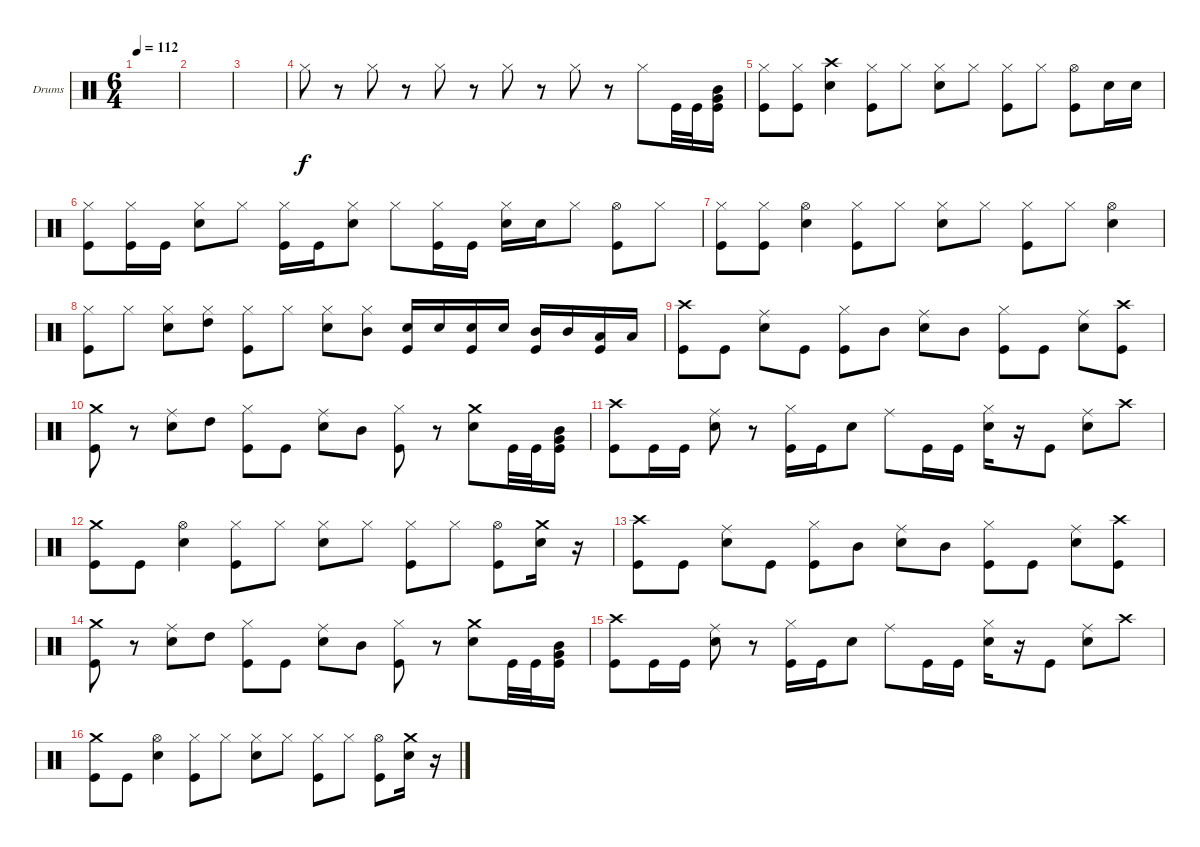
\defaultSystemsLayout 4
\bracketExtendMode groupsimilarinstruments
\firstSystemTrackNameOrientation horizontal
\otherSystemsTrackNameOrientation horizontal
\track ("Kaleb - Drums" "Drums") {instrument percussion}
\staff {score}
\articulation defaults
\ts (6 4)
\tempo 112
\clef neutral
\scale
0.333333
\ks c
|
\scale
0.333333 |
\scale
0.333333 |
\scale
0.333333 "Hi-Hat (closed)".8 r.8 "Hi-Hat (closed)".8 r.8 "Hi-Hat (closed)".8 r.8 "Hi-Hat (closed)".8 r.8 "Hi-Hat (closed)".8 r.8 "Hi-Hat (closed)".8 "Kick (hit)".32 "Kick (hit)".32 ("Mid Tom (hit)" "Very Low Tom (hit)" "Kick (hit)").16 |
\scale
0.333333 ("Hi-Hat (closed)" "Kick (hit)").8 ("Kick (hit)" "Hi-Hat (closed)").8 ("Snare (hit) 2" "Crash high (hit)").4{dy f} ("Hi-Hat (closed)" "Kick (hit)").8 "Hi-Hat (closed)".8 ("Hi-Hat (closed)" "Snare (hit) 2").8 "Hi-Hat (closed)".8 ("Hi-Hat (closed)" "Kick (hit)").8 "Hi-Hat (closed)".8 ("Kick (hit)" "Hi-Hat (open)").8 "Snare (hit) 2".16 "Snare (hit) 2".16 |
\scale
0.333333 ("Kick (hit)" "Hi-Hat (closed)").8 ("Kick (hit)" "Hi-Hat (closed)").16 "Kick (hit)".16 ("Snare (hit) 2" "Hi-Hat (closed)").8 "Hi-Hat (closed)".8 ("Hi-Hat (closed)" "Kick (hit)").16 "Kick (hit)".16 ("Hi-Hat (closed)" "Snare (hit) 2").8 "Hi-Hat (closed)".8 ("Hi-Hat (closed)" "Kick (hit)").16 "Kick (hit)".16 ("Hi-Hat (closed)" "Snare (hit) 2").16 "Snare (hit) 2".16 "Hi-Hat (closed)".8 ("Hi-Hat (open)" "Kick (hit)").8 "Hi-Hat (closed)".8 |
\scale
0.333333 ("Hi-Hat (closed)" "Kick (hit)").8 ("Hi-Hat (closed)" "Kick (hit)").8 ("Hi-Hat (open)" "Snare (hit) 2").4 ("Hi-Hat (closed)" "Kick (hit)").8 "Hi-Hat (closed)".8 ("Hi-Hat (closed)" "Snare (hit) 2").8 "Hi-Hat (closed)".8 ("Hi-Hat (closed)" "Kick (hit)").8 "Hi-Hat (closed)".8 ("Hi-Hat (open)" "Snare (hit) 2").4 |
\scale
0.333333 ("Kick (hit)" "Hi-Hat (closed)").8 "Hi-Hat (closed)".8 ("Hi-Hat (closed)" "Snare (hit) 2").8 ("Hi-Hat (closed)" "High Tom (hit)").8 ("Hi-Hat (closed)" "Kick (hit)").8 "Hi-Hat (closed)".8 ("Hi-Hat (closed)" "Snare (hit) 2").8 ("Hi-Hat (closed)" "Mid Tom (hit)").8 ("Snare (hit) 2" "Kick (hit)").16 "Snare (hit) 2".16 ("Snare (hit) 2" "Kick (hit)").16 "Snare (hit) 2".16 ("Mid Tom (hit)" "Kick (hit)").16 "Mid Tom (hit)".16 ("Kick (hit)" "Low Tom (hit)").16 "Low Tom (hit)".16 |
\scale
0.333333 ("Kick (hit)" "Crash high (hit)").8 "Kick (hit)".8 ("Snare (hit) 2" "Ride (middle)").8 "Kick (hit)".8 ("Hi-Hat (closed)" "Kick (hit)").8 "Mid Tom (hit)".8 ("Ride (middle)" "Snare (hit) 2").8 "Mid Tom (hit)".8 ("Hi-Hat (closed)" "Kick (hit)").8 "Kick (hit)".8 ("Ride (middle)" "Snare (hit) 2").8 ("Kick (hit)" "Crash high (hit)").8 |
\scale
0.333333 ("Kick (hit)" "Crash medium (hit)").8 r.8 ("Snare (hit) 2" "Ride (middle)").8 "High Tom (hit)".8 ("Hi-Hat (closed)" "Kick (hit)").8 "Kick (hit)".8 ("Snare (hit) 2" "Ride (middle)").8 "Mid Tom (hit)".8 ("Hi-Hat (closed)" "Kick (hit)").8 r.8 ("Crash medium (hit)" "Snare (hit) 2").8 "Kick (hit)".32 "Kick (hit)".32 ("Mid Tom (hit)" "Very Low Tom (hit)" "Kick (hit)").16 |
\scale
0.333333 ("Kick (hit)" "Crash high (hit)").8 "Kick (hit)".16 "Kick (hit)".16 ("Snare (hit) 2" "Ride (middle)").8 r.8 ("Hi-Hat (closed)" "Kick (hit)").16 "Kick (hit)".16 "Snare (hit) 2".8 "Ride (middle)".8 "Kick (hit)".16 "Kick (hit)".16 ("Hi-Hat (closed)" "Snare (hit) 2").16 r.16 "Kick (hit)".8 ("Ride (middle)" "Snare (hit) 2").8 "Crash high (hit)".8 |
\scale
0.333333 ("Kick (hit)" "Crash medium (hit)").8 "Kick (hit)".8 ("Hi-Hat (open)" "Snare (hit) 2").4 ("Hi-Hat (closed)" "Kick (hit)").8 "Hi-Hat (closed)".8 ("Hi-Hat (closed)" "Snare (hit) 2").8 "Hi-Hat (closed)".8 ("Hi-Hat (closed)" "Kick (hit)").8 "Hi-Hat (closed)".8 ("Kick (hit)" "Hi-Hat (open)").8 ("Snare (hit) 2" "Crash medium (hit)").16 r.16 |
\scale
0.333333 ("Kick (hit)" "Crash high (hit)").8 "Kick (hit)".8 ("Snare (hit) 2" "Ride (middle)").8 "Kick (hit)".8 ("Hi-Hat (closed)" "Kick (hit)").8 "Mid Tom (hit)".8 ("Ride (middle)" "Snare (hit) 2").8 "Mid Tom (hit)".8 ("Hi-Hat (closed)" "Kick (hit)").8 "Kick (hit)".8 ("Ride (middle)" "Snare (hit) 2").8 ("Kick (hit)" "Crash high (hit)").8 |
\scale
0.333333 ("Kick (hit)" "Crash medium (hit)").8 r.8 ("Snare (hit) 2" "Ride (middle)").8 "High Tom (hit)".8 ("Hi-Hat (closed)" "Kick (hit)").8 "Kick (hit)".8 ("Snare (hit) 2" "Ride (middle)").8 "Mid Tom (hit)".8 ("Hi-Hat (closed)" "Kick (hit)").8 r.8 ("Crash medium (hit)" "Snare (hit) 2").8 "Kick (hit)".32 "Kick (hit)".32 ("Mid Tom (hit)" "Very Low Tom (hit)" "Kick (hit)").16 |
\scale
0.333333 ("Kick (hit)" "Crash high (hit)").8 "Kick (hit)".16 "Kick (hit)".16 ("Snare (hit) 2" "Ride (middle)").8 r.8 ("Hi-Hat (closed)" "Kick (hit)").16 "Kick (hit)".16 "Snare (hit) 2".8 "Ride (middle)".8 "Kick (hit)".16 "Kick (hit)".16 ("Hi-Hat (closed)" "Snare (hit) 2").16 r.16 "Kick (hit)".8 ("Ride (middle)" "Snare (hit) 2").8 "Crash high (hit)".8 |
\scale
0.333333 ("Kick (hit)" "Crash medium (hit)").8 "Kick (hit)".8 ("Hi-Hat (open)" "Snare (hit) 2").4 ("Hi-Hat (closed)" "Kick (hit)").8 "Hi-Hat (closed)".8 ("Hi-Hat (closed)" "Snare (hit) 2").8 "Hi-Hat (closed)".8 ("Hi-Hat (closed)" "Kick (hit)").8 "Hi-Hat (closed)".8 ("Kick (hit)" "Hi-Hat (open)").8 ("Snare (hit) 2" "Crash medium (hit)").16 r.16
